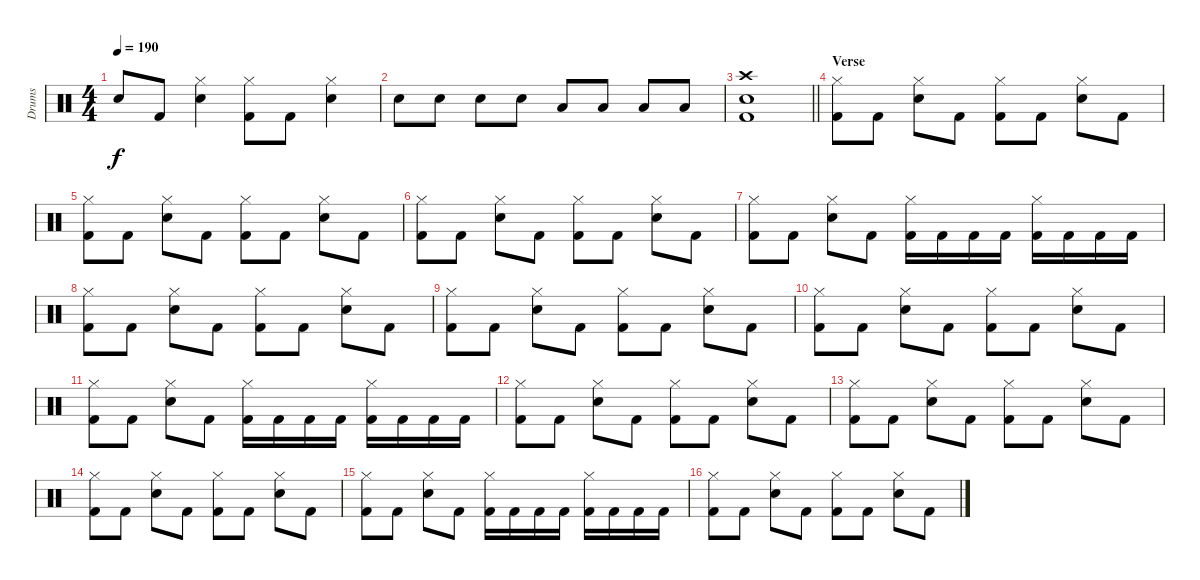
\track ("Drums" "Drums") {instrument percussion}
\staff {score}
\articulation defaults
\ts (4 4)
\tempo 190
\clef neutral
\ks c "Snare (hit)"{t}.8{dy f} "Kick (hit) 2".8
("Snare (hit) 2" "Hi-Hat (closed)").4 ("Kick (hit) 2" "Hi-Hat (closed)").8 "Kick (hit) 2".8 ("Snare (hit) 2" "Hi-Hat (closed)").4 |
"Snare (hit) 2".8 "Snare (hit) 2".8 "Snare (hit) 2".8 "Snare (hit) 2".8 "Low Tom (hit)".8 "Low Tom (hit)".8 "Low Tom (hit)".8 "Low Tom (hit)".8 |
\barLineRight lightlight
("Kick (hit) 2" "Snare (hit) 2" "Crash high (hit)").1 |
\section ("" "Verse")
("Kick (hit) 2" "Hi-Hat (closed)").8 "Kick (hit) 2".8 ("Snare (hit) 2" "Hi-Hat (closed)").8 "Kick (hit) 2".8 ("Kick (hit) 2" "Hi-Hat (closed)").8 "Kick (hit) 2".8 ("Snare (hit) 2" "Hi-Hat (closed)").8 "Kick (hit) 2".8 |
("Kick (hit) 2" "Hi-Hat (closed)").8 "Kick (hit) 2".8 ("Snare (hit) 2" "Hi-Hat (closed)").8 "Kick (hit) 2".8 ("Kick (hit) 2" "Hi-Hat (closed)").8 "Kick (hit) 2".8 ("Snare (hit) 2" "Hi-Hat (closed)").8 "Kick (hit) 2".8 |
("Kick (hit) 2" "Hi-Hat (closed)").8 "Kick (hit) 2".8 ("Snare (hit) 2" "Hi-Hat (closed)").8 "Kick (hit) 2".8 ("Kick (hit) 2" "Hi-Hat (closed)").8 "Kick (hit) 2".8 ("Snare (hit) 2" "Hi-Hat (closed)").8 "Kick (hit) 2".8 |
("Kick (hit) 2" "Hi-Hat (closed)").8 "Kick (hit) 2".8 ("Snare (hit) 2" "Hi-Hat (closed)").8 "Kick (hit) 2".8 ("Kick (hit) 2" "Hi-Hat (closed)").16 "Kick (hit) 2".16 "Kick (hit) 2".16 "Kick (hit) 2".16 ("Kick (hit) 2" "Hi-Hat (closed)").16 "Kick (hit) 2".16 "Kick (hit) 2".16 "Kick (hit) 2".16 |
("Kick (hit) 2" "Hi-Hat (closed)").8 "Kick (hit) 2".8 ("Snare (hit) 2" "Hi-Hat (closed)").8 "Kick (hit) 2".8 ("Kick (hit) 2" "Hi-Hat (closed)").8 "Kick (hit) 2".8 ("Snare (hit) 2" "Hi-Hat (closed)").8 "Kick (hit) 2".8 |
("Kick (hit) 2" "Hi-Hat (closed)").8 "Kick (hit) 2".8 ("Snare (hit) 2" "Hi-Hat (closed)").8 "Kick (hit) 2".8 ("Kick (hit) 2" "Hi-Hat (closed)").8 "Kick (hit) 2".8 ("Snare (hit) 2" "Hi-Hat (closed)").8 "Kick (hit) 2".8 |
("Kick (hit) 2" "Hi-Hat (closed)").8 "Kick (hit) 2".8 ("Snare (hit) 2" "Hi-Hat (closed)").8 "Kick (hit) 2".8 ("Kick (hit) 2" "Hi-Hat (closed)").8 "Kick (hit) 2".8 ("Snare (hit) 2" "Hi-Hat (closed)").8 "Kick (hit) 2".8 |
("Kick (hit) 2" "Hi-Hat (closed)").8 "Kick (hit) 2".8 ("Snare (hit) 2" "Hi-Hat (closed)").8 "Kick (hit) 2".8 ("Kick (hit) 2" "Hi-Hat (closed)").16 "Kick (hit) 2".16 "Kick (hit) 2".16 "Kick (hit) 2".16 ("Kick (hit) 2" "Hi-Hat (closed)").16 "Kick (hit) 2".16 "Kick (hit) 2".16 "Kick (hit) 2".16 |
("Kick (hit) 2" "Hi-Hat (closed)").8 "Kick (hit) 2".8 ("Snare (hit) 2" "Hi-Hat (closed)").8 "Kick (hit) 2".8 ("Kick (hit) 2" "Hi-Hat (closed)").8 "Kick (hit) 2".8 ("Snare (hit) 2" "Hi-Hat (closed)").8 "Kick (hit) 2".8 |
("Kick (hit) 2" "Hi-Hat (closed)").8 "Kick (hit) 2".8 ("Snare (hit) 2" "Hi-Hat (closed)").8 "Kick (hit) 2".8 ("Kick (hit) 2" "Hi-Hat (closed)").8 "Kick (hit) 2".8 ("Snare (hit) 2" "Hi-Hat (closed)").8 "Kick (hit) 2".8 |
("Kick (hit) 2" "Hi-Hat (closed)").8 "Kick (hit) 2".8 ("Snare (hit) 2" "Hi-Hat (closed)").8 "Kick (hit) 2".8 ("Kick (hit) 2" "Hi-Hat (closed)").8 "Kick (hit) 2".8 ("Snare (hit) 2" "Hi-Hat (closed)").8 "Kick (hit) 2".8 |
("Kick (hit) 2" "Hi-Hat (closed)").8 "Kick (hit) 2".8 ("Snare (hit) 2" "Hi-Hat (closed)").8 "Kick (hit) 2".8 ("Kick (hit) 2" "Hi-Hat (closed)").16 "Kick (hit) 2".16 "Kick (hit) 2".16 "Kick (hit) 2".16 ("Kick (hit) 2" "Hi-Hat (closed)").16 "Kick (hit) 2".16 "Kick (hit) 2".16 "Kick (hit) 2".16 |
("Kick (hit) 2" "Hi-Hat (closed)").8 "Kick (hit) 2".8 ("Snare (hit) 2" "Hi-Hat (closed)").8 "Kick (hit) 2".8 ("Kick (hit) 2" "Hi-Hat (closed)").8 "Kick (hit) 2".8 ("Snare (hit) 2" "Hi-Hat (closed)").8 "Kick (hit) 2".8
